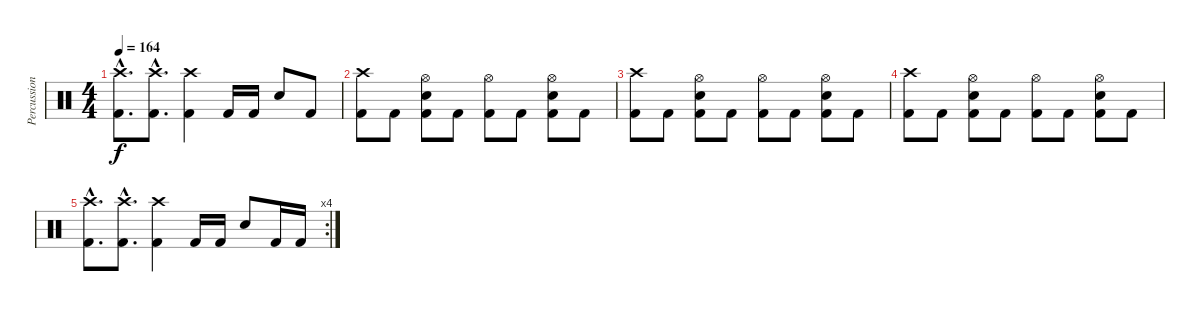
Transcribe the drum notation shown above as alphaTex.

\track ("Percussion" "Percussion") {instrument percussion}
\staff {score}
\articulation defaults
\ts (4 4)
\tempo 164
\clef neutral
\ks c
("Crash high (hit)"{hac} "Kick (hit) 2"{hac}).8{d dy f} ("Crash high (hit)"{hac} "Kick (hit) 2"{hac}).8{d} ("Crash high (hit)" "Kick (hit) 2").4 "Kick (hit) 2".16 "Kick (hit) 2".16 "Snare (hit) 2".8 "Kick (hit) 2".8 |
("Crash high (hit)" "Kick (hit) 2").8 "Kick (hit) 2".8 ("Hi-Hat (open)" "Snare (hit) 2" "Kick (hit) 2").8 "Kick (hit) 2".8 ("Hi-Hat (open)" "Kick (hit) 2").8 "Kick (hit) 2".8 ("Hi-Hat (open)" "Snare (hit) 2" "Kick (hit) 2").8 "Kick (hit) 2".8 |
("Crash high (hit)" "Kick (hit) 2").8 "Kick (hit) 2".8 ("Hi-Hat (open)" "Snare (hit) 2" "Kick (hit) 2").8 "Kick (hit) 2".8 ("Hi-Hat (open)" "Kick (hit) 2").8 "Kick (hit) 2".8 ("Hi-Hat (open)" "Snare (hit) 2" "Kick (hit) 2").8 "Kick (hit) 2".8 |
("Crash high (hit)" "Kick (hit) 2").8 "Kick (hit) 2".8 ("Hi-Hat (open)" "Snare (hit) 2" "Kick (hit) 2").8 "Kick (hit) 2".8 ("Hi-Hat (open)" "Kick (hit) 2").8 "Kick (hit) 2".8 ("Hi-Hat (open)" "Snare (hit) 2" "Kick (hit) 2").8 "Kick (hit) 2".8 |
\rc 4
("Crash high (hit)"{hac} "Kick (hit) 2"{hac}).8{d} ("Crash high (hit)"{hac} "Kick (hit) 2"{hac}).8{d} ("Crash high (hit)" "Kick (hit) 2").4 "Kick (hit) 2".16 "Kick (hit) 2".16 "Snare (hit) 2".8 "Kick (hit) 2".16 "Kick (hit) 2".16
